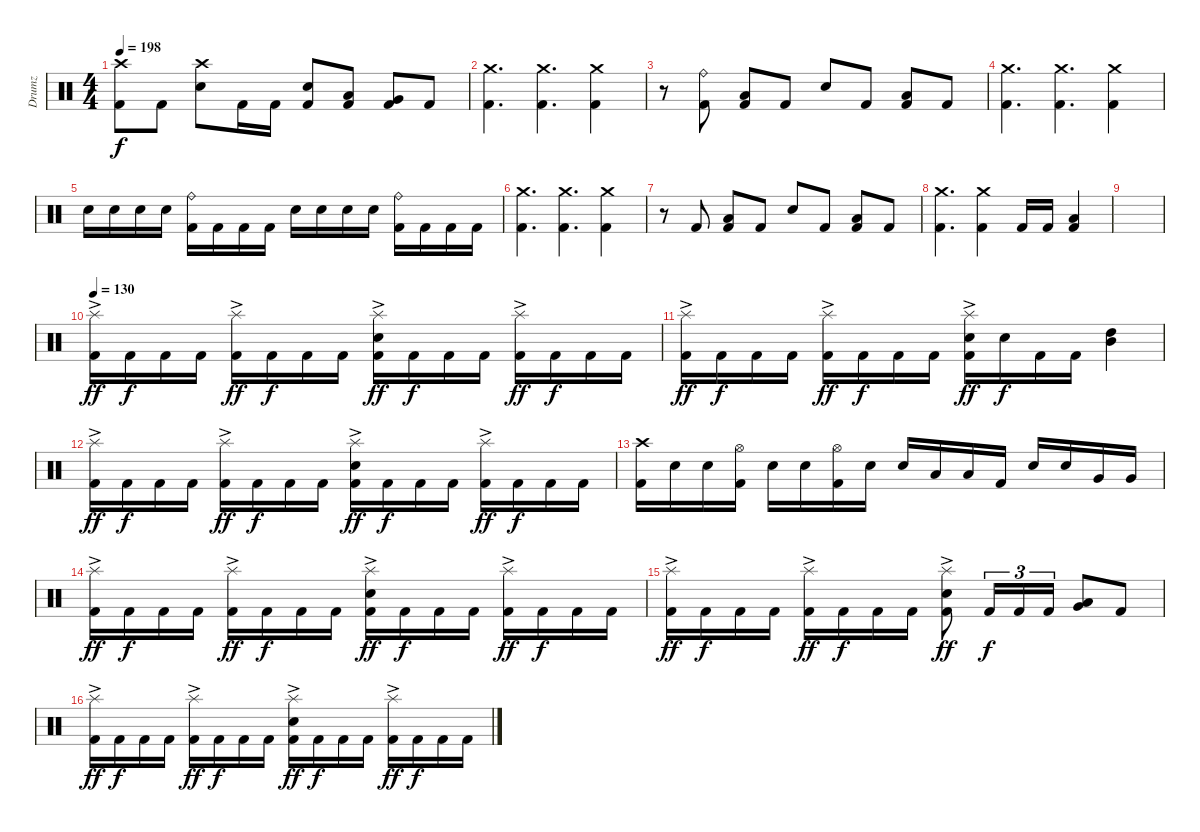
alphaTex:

\track ("Drumz" "Drumz") {instrument percussion}
\staff {score}
\articulation defaults
\ts (4 4)
\tempo 198
\clef neutral
\ks c
("Crash high (hit)" "Kick (hit) 2").8{dy f} "Kick (hit) 2".8 ("Crash high (hit)" "Electric Snare (hit)").8 "Kick (hit) 2".16 "Kick (hit) 2".16 ("Electric Snare (hit)" "Kick (hit) 2").8 ("Low Tom (hit)" "Kick (hit) 2").8 ("Very Low Tom (hit)" "Kick (hit) 2").8 "Kick (hit) 2".8 |
("Crash medium (hit)" "Kick (hit) 2").4{d} ("Crash medium (hit)" "Kick (hit) 2").4{d} ("Crash medium (hit)" "Kick (hit) 2").4 |
r.8 ("Ride (bell)" "Kick (hit) 2").8 ("Low Tom (hit)" "Kick (hit) 2").8 "Kick (hit) 2".8 "Electric Snare (hit)".8 "Kick (hit) 2".8 ("Low Tom (hit)" "Kick (hit) 2").8 "Kick (hit) 2".8 |
("Crash medium (hit)" "Kick (hit) 2").4{d} ("Crash medium (hit)" "Kick (hit) 2").4{d} ("Crash medium (hit)" "Kick (hit) 2").4 |
"Electric Snare (hit)".16 "Electric Snare (hit)".16 "Electric Snare (hit)".16 "Electric Snare (hit)".16 ("Ride (bell)" "Kick (hit) 2").16 "Kick (hit) 2".16 "Kick (hit) 2".16 "Kick (hit) 2".16 "Electric Snare (hit)".16 "Electric Snare (hit)".16 "Electric Snare (hit)".16 "Electric Snare (hit)".16 ("Ride (bell)" "Kick (hit) 2").16 "Kick (hit) 2".16 "Kick (hit) 2".16 "Kick (hit) 2".16 |
("Crash medium (hit)" "Kick (hit) 2").4{d} ("Crash medium (hit)" "Kick (hit) 2").4{d} ("Crash medium (hit)" "Kick (hit) 2").4 |
r.8 "Kick (hit) 2".8 ("Low Tom (hit)" "Kick (hit) 2").8 "Kick (hit) 2".8 "Electric Snare (hit)".8 "Kick (hit) 2".8 ("Low Tom (hit)" "Kick (hit) 2").8 "Kick (hit) 2".8 |
("Crash medium (hit)" "Kick (hit) 2").4{d} ("Crash medium (hit)" "Kick (hit) 2").4 "Kick (hit) 2".16 "Kick (hit) 2".16 ("Low Tom (hit)" "Kick (hit) 2").4 |
|
\tempo 130
("Splash (hit)"{ac} "Kick (hit) 2").16{dy ff} "Kick (hit) 2".16{dy f} "Kick (hit) 2".16 "Kick (hit) 2".16 ("Splash (hit)"{ac} "Kick (hit) 2").16{dy ff} "Kick (hit) 2".16{dy f} "Kick (hit) 2".16 "Kick (hit) 2".16 ("Splash (hit)"{ac} "Electric Snare (hit)" "Kick (hit) 2").16{dy ff} "Kick (hit) 2".16{dy f} "Kick (hit) 2".16 "Kick (hit) 2".16 ("Splash (hit)"{ac} "Kick (hit) 2").16{dy ff} "Kick (hit) 2".16{dy f} "Kick (hit) 2".16 "Kick (hit) 2".16 |
("Splash (hit)"{ac} "Kick (hit) 2").16{dy ff} "Kick (hit) 2".16{dy f} "Kick (hit) 2".16 "Kick (hit) 2".16 ("Splash (hit)"{ac} "Kick (hit) 2").16{dy ff} "Kick (hit) 2".16{dy f} "Kick (hit) 2".16 "Kick (hit) 2".16 ("Splash (hit)"{ac} "Electric Snare (hit)" "Kick (hit) 2").16{dy ff} "Electric Snare (hit)".16{dy f} "Kick (hit) 2".16 "Kick (hit) 2".16 ("High Tom (hit)" "Mid Tom (hit)").4 |
("Splash (hit)"{ac} "Kick (hit) 2").16{dy ff} "Kick (hit) 2".16{dy f} "Kick (hit) 2".16 "Kick (hit) 2".16 ("Splash (hit)"{ac} "Kick (hit) 2").16{dy ff} "Kick (hit) 2".16{dy f} "Kick (hit) 2".16 "Kick (hit) 2".16 ("Splash (hit)"{ac} "Electric Snare (hit)" "Kick (hit) 2").16{dy ff} "Kick (hit) 2".16{dy f} "Kick (hit) 2".16 "Kick (hit) 2".16 ("Splash (hit)"{ac} "Kick (hit) 2").16{dy ff} "Kick (hit) 2".16{dy f} "Kick (hit) 2".16 "Kick (hit) 2".16 |
("Crash high (hit)" "Kick (hit) 2").16 "Electric Snare (hit)".16 "Electric Snare (hit)".16 ("Hi-Hat (open)" "Kick (hit) 2").16 "Electric Snare (hit)".16 "Electric Snare (hit)".16 ("Hi-Hat (open)" "Kick (hit) 2").16 "Electric Snare (hit)".16 "Electric Snare (hit)".16 "Low Tom (hit)".16 "Low Tom (hit)".16 "Kick (hit) 2".16 "Electric Snare (hit)".16 "Electric Snare (hit)".16 "Very Low Tom (hit)".16 "Very Low Tom (hit)".16 |
("Splash (hit)"{ac} "Kick (hit) 2").16{dy ff} "Kick (hit) 2".16{dy f} "Kick (hit) 2".16 "Kick (hit) 2".16 ("Splash (hit)"{ac} "Kick (hit) 2").16{dy ff} "Kick (hit) 2".16{dy f} "Kick (hit) 2".16 "Kick (hit) 2".16 ("Splash (hit)"{ac} "Electric Snare (hit)" "Kick (hit) 2").16{dy ff} "Kick (hit) 2".16{dy f} "Kick (hit) 2".16 "Kick (hit) 2".16 ("Splash (hit)"{ac} "Kick (hit) 2").16{dy ff} "Kick (hit) 2".16{dy f} "Kick (hit) 2".16 "Kick (hit) 2".16 |
("Splash (hit)"{ac} "Kick (hit) 2").16{dy ff} "Kick (hit) 2".16{dy f} "Kick (hit) 2".16 "Kick (hit) 2".16 ("Splash (hit)"{ac} "Kick (hit) 2").16{dy ff} "Kick (hit) 2".16{dy f} "Kick (hit) 2".16 "Kick (hit) 2".16 ("Splash (hit)"{ac} "Electric Snare (hit)" "Kick (hit) 2").8{dy ff} "Kick (hit) 2".16{tu (3 2) dy f} "Kick (hit) 2".16{tu (3 2)} "Kick (hit) 2".16{tu (3 2)} ("Low Tom (hit)" "Very Low Tom (hit)").8 "Kick (hit) 2".8 |
("Splash (hit)"{ac} "Kick (hit) 2").16{dy ff} "Kick (hit) 2".16{dy f} "Kick (hit) 2".16 "Kick (hit) 2".16 ("Splash (hit)"{ac} "Kick (hit) 2").16{dy ff} "Kick (hit) 2".16{dy f} "Kick (hit) 2".16 "Kick (hit) 2".16 ("Splash (hit)"{ac} "Electric Snare (hit)" "Kick (hit) 2").16{dy ff} "Kick (hit) 2".16{dy f} "Kick (hit) 2".16 "Kick (hit) 2".16 ("Splash (hit)"{ac} "Kick (hit) 2").16{dy ff} "Kick (hit) 2".16{dy f} "Kick (hit) 2".16 "Kick (hit) 2".16
